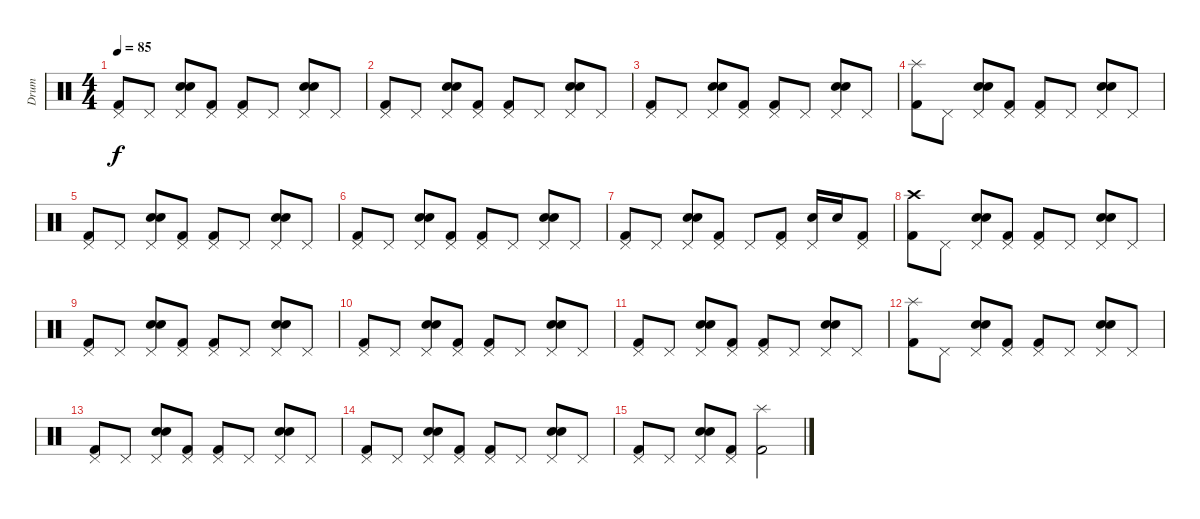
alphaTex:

\track ("Drum" "Drum") {instrument percussion}
\staff {score}
\articulation defaults
\ts (4 4)
\tempo 85
\clef neutral
\ks c
("Pedal Hi-Hat (hit)" "Kick (hit) 2").8{dy f} "Pedal Hi-Hat (hit)".8 ("Pedal Hi-Hat (hit)" "Hand Clap (hit)" "Snare (hit) 2").8 ("Pedal Hi-Hat (hit)" "Kick (hit) 2").8 ("Pedal Hi-Hat (hit)" "Kick (hit) 2").8 "Pedal Hi-Hat (hit)".8 ("Pedal Hi-Hat (hit)" "Hand Clap (hit)" "Snare (hit) 2").8 "Pedal Hi-Hat (hit)".8 |
("Pedal Hi-Hat (hit)" "Kick (hit) 2").8 "Pedal Hi-Hat (hit)".8 ("Pedal Hi-Hat (hit)" "Hand Clap (hit)" "Snare (hit) 2").8 ("Pedal Hi-Hat (hit)" "Kick (hit) 2").8 ("Pedal Hi-Hat (hit)" "Kick (hit) 2").8 "Pedal Hi-Hat (hit)".8 ("Pedal Hi-Hat (hit)" "Hand Clap (hit)" "Snare (hit) 2").8 "Pedal Hi-Hat (hit)".8 |
("Pedal Hi-Hat (hit)" "Kick (hit) 2").8 "Pedal Hi-Hat (hit)".8 ("Pedal Hi-Hat (hit)" "Hand Clap (hit)" "Snare (hit) 2").8 ("Pedal Hi-Hat (hit)" "Kick (hit) 2").8 ("Pedal Hi-Hat (hit)" "Kick (hit) 2").8 "Pedal Hi-Hat (hit)".8 ("Pedal Hi-Hat (hit)" "Hand Clap (hit)" "Snare (hit) 2").8 "Pedal Hi-Hat (hit)".8 |
("Splash (hit)" "Kick (hit) 2").8 "Pedal Hi-Hat (hit)".8 ("Pedal Hi-Hat (hit)" "Hand Clap (hit)" "Snare (hit) 2").8 ("Pedal Hi-Hat (hit)" "Kick (hit) 2").8 ("Pedal Hi-Hat (hit)" "Kick (hit) 2").8 "Pedal Hi-Hat (hit)".8 ("Pedal Hi-Hat (hit)" "Hand Clap (hit)" "Snare (hit) 2").8 "Pedal Hi-Hat (hit)".8 |
("Pedal Hi-Hat (hit)" "Kick (hit) 2").8 "Pedal Hi-Hat (hit)".8 ("Pedal Hi-Hat (hit)" "Hand Clap (hit)" "Snare (hit) 2").8 ("Pedal Hi-Hat (hit)" "Kick (hit) 2").8 ("Pedal Hi-Hat (hit)" "Kick (hit) 2").8 "Pedal Hi-Hat (hit)".8 ("Pedal Hi-Hat (hit)" "Hand Clap (hit)" "Snare (hit) 2").8 "Pedal Hi-Hat (hit)".8 |
("Pedal Hi-Hat (hit)" "Kick (hit) 2").8 "Pedal Hi-Hat (hit)".8 ("Pedal Hi-Hat (hit)" "Hand Clap (hit)" "Snare (hit) 2").8 ("Pedal Hi-Hat (hit)" "Kick (hit) 2").8 ("Pedal Hi-Hat (hit)" "Kick (hit) 2").8 "Pedal Hi-Hat (hit)".8 ("Pedal Hi-Hat (hit)" "Hand Clap (hit)" "Snare (hit) 2").8 "Pedal Hi-Hat (hit)".8 |
("Pedal Hi-Hat (hit)" "Kick (hit) 2").8 "Pedal Hi-Hat (hit)".8 ("Pedal Hi-Hat (hit)" "Hand Clap (hit)" "Snare (hit) 2").8 ("Pedal Hi-Hat (hit)" "Kick (hit) 2").8 "Pedal Hi-Hat (hit)".8 ("Pedal Hi-Hat (hit)" "Kick (hit) 2").8 ("Pedal Hi-Hat (hit)" "Hand Clap (hit)").16 "Hand Clap (hit)".16 ("Pedal Hi-Hat (hit)" "Kick (hit) 2").8 |
("Crash high (hit)" "Kick (hit) 2").8 "Pedal Hi-Hat (hit)".8 ("Pedal Hi-Hat (hit)" "Hand Clap (hit)" "Snare (hit) 2").8 ("Pedal Hi-Hat (hit)" "Kick (hit) 2").8 ("Pedal Hi-Hat (hit)" "Kick (hit) 2").8 "Pedal Hi-Hat (hit)".8 ("Pedal Hi-Hat (hit)" "Hand Clap (hit)" "Snare (hit) 2").8 "Pedal Hi-Hat (hit)".8 |
("Pedal Hi-Hat (hit)" "Kick (hit) 2").8 "Pedal Hi-Hat (hit)".8 ("Pedal Hi-Hat (hit)" "Hand Clap (hit)" "Snare (hit) 2").8 ("Pedal Hi-Hat (hit)" "Kick (hit) 2").8 ("Pedal Hi-Hat (hit)" "Kick (hit) 2").8 "Pedal Hi-Hat (hit)".8 ("Pedal Hi-Hat (hit)" "Hand Clap (hit)" "Snare (hit) 2").8 "Pedal Hi-Hat (hit)".8 |
("Pedal Hi-Hat (hit)" "Kick (hit) 2").8 "Pedal Hi-Hat (hit)".8 ("Pedal Hi-Hat (hit)" "Hand Clap (hit)" "Snare (hit) 2").8 ("Pedal Hi-Hat (hit)" "Kick (hit) 2").8 ("Pedal Hi-Hat (hit)" "Kick (hit) 2").8 "Pedal Hi-Hat (hit)".8 ("Pedal Hi-Hat (hit)" "Hand Clap (hit)" "Snare (hit) 2").8 "Pedal Hi-Hat (hit)".8 |
("Pedal Hi-Hat (hit)" "Kick (hit) 2").8 "Pedal Hi-Hat (hit)".8 ("Pedal Hi-Hat (hit)" "Hand Clap (hit)" "Snare (hit) 2").8 ("Pedal Hi-Hat (hit)" "Kick (hit) 2").8 ("Pedal Hi-Hat (hit)" "Kick (hit) 2").8 "Pedal Hi-Hat (hit)".8 ("Pedal Hi-Hat (hit)" "Hand Clap (hit)" "Snare (hit) 2").8 "Pedal Hi-Hat (hit)".8 |
("Splash (hit)" "Kick (hit) 2").8 "Pedal Hi-Hat (hit)".8 ("Pedal Hi-Hat (hit)" "Hand Clap (hit)" "Snare (hit) 2").8 ("Pedal Hi-Hat (hit)" "Kick (hit) 2").8 ("Pedal Hi-Hat (hit)" "Kick (hit) 2").8 "Pedal Hi-Hat (hit)".8 ("Pedal Hi-Hat (hit)" "Hand Clap (hit)" "Snare (hit) 2").8 "Pedal Hi-Hat (hit)".8 |
("Pedal Hi-Hat (hit)" "Kick (hit) 2").8 "Pedal Hi-Hat (hit)".8 ("Pedal Hi-Hat (hit)" "Hand Clap (hit)" "Snare (hit) 2").8 ("Pedal Hi-Hat (hit)" "Kick (hit) 2").8 ("Pedal Hi-Hat (hit)" "Kick (hit) 2").8 "Pedal Hi-Hat (hit)".8 ("Pedal Hi-Hat (hit)" "Hand Clap (hit)" "Snare (hit) 2").8 "Pedal Hi-Hat (hit)".8 |
("Pedal Hi-Hat (hit)" "Kick (hit) 2").8 "Pedal Hi-Hat (hit)".8 ("Pedal Hi-Hat (hit)" "Hand Clap (hit)" "Snare (hit) 2").8 ("Pedal Hi-Hat (hit)" "Kick (hit) 2").8 ("Pedal Hi-Hat (hit)" "Kick (hit) 2").8 "Pedal Hi-Hat (hit)".8 ("Pedal Hi-Hat (hit)" "Hand Clap (hit)" "Snare (hit) 2").8 "Pedal Hi-Hat (hit)".8 |
("Pedal Hi-Hat (hit)" "Kick (hit) 2").8 "Pedal Hi-Hat (hit)".8 ("Pedal Hi-Hat (hit)" "Hand Clap (hit)" "Snare (hit) 2").8 ("Pedal Hi-Hat (hit)" "Kick (hit) 2").8 ("Splash (hit)" "Kick (hit) 2").2
